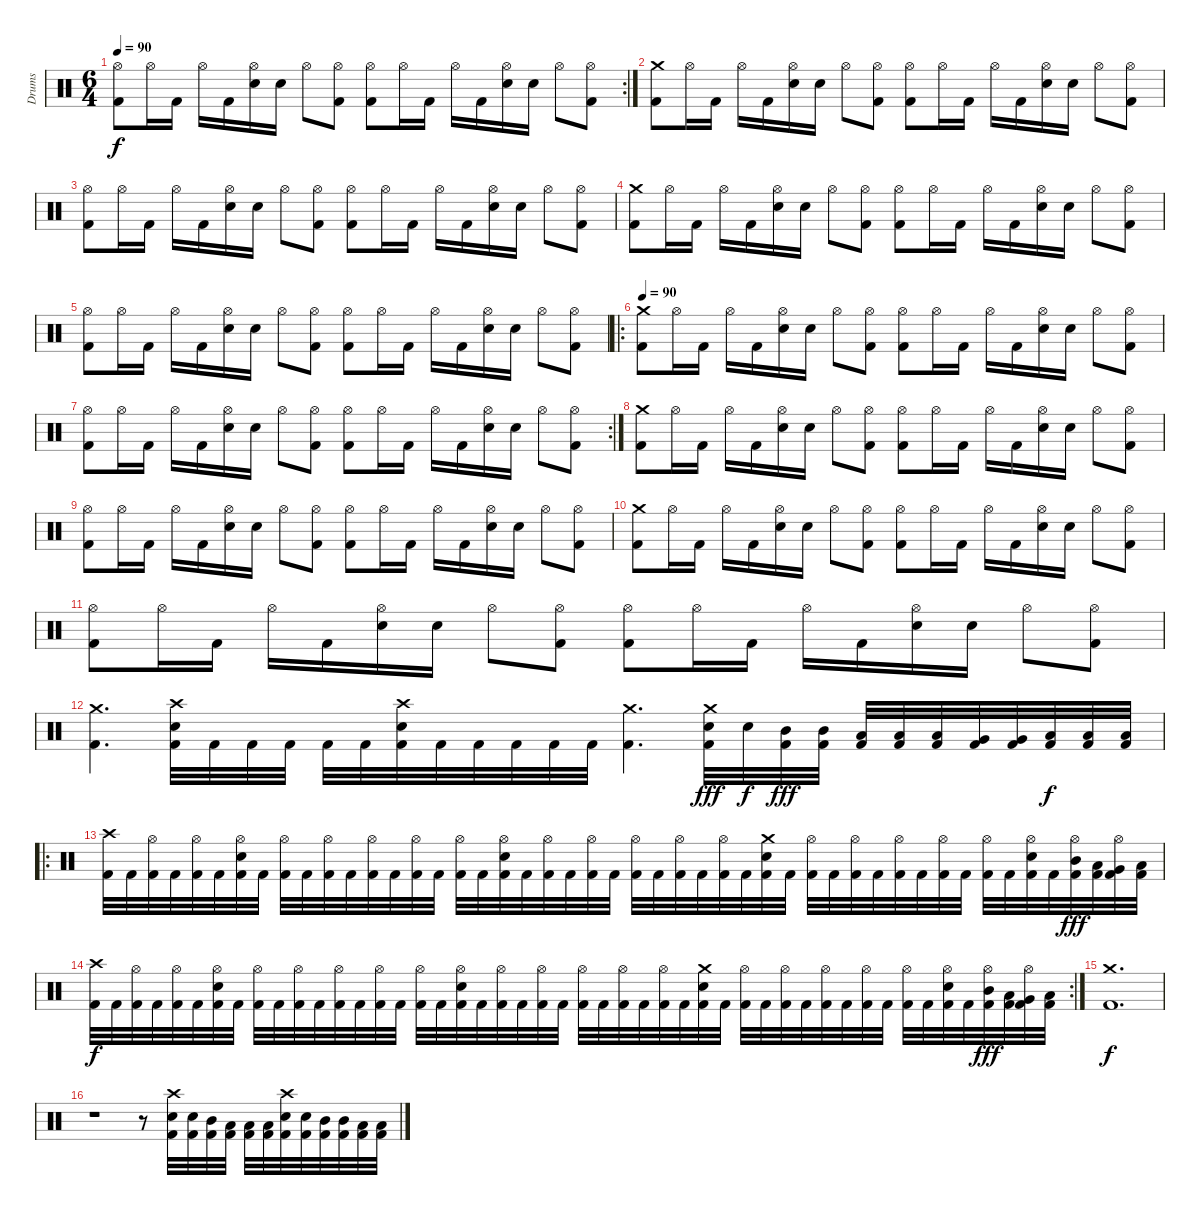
\track ("Drums" "Drums") {instrument percussion}
\staff {score}
\articulation defaults
\rc 2
\ts (6 4)
\tempo 90
\clef neutral
\ks c
("Hi-Hat (open)" "Kick (hit) 2").8{dy f} "Hi-Hat (open)".16 "Kick (hit) 2".16 "Hi-Hat (open)".16 "Kick (hit) 2".16 ("Hi-Hat (open)" "Electric Snare (hit)").16 "Electric Snare (hit)".16 "Hi-Hat (open)".8 ("Hi-Hat (open)" "Kick (hit) 2").8 ("Hi-Hat (open)" "Kick (hit) 2").8 "Hi-Hat (open)".16 "Kick (hit) 2".16 "Hi-Hat (open)".16 "Kick (hit) 2".16 ("Hi-Hat (open)" "Electric Snare (hit)").16 "Electric Snare (hit)".16 "Hi-Hat (open)".8 ("Hi-Hat (open)" "Kick (hit) 2").8 |
("Crash medium (hit)" "Kick (hit) 2").8 "Hi-Hat (open)".16 "Kick (hit) 2".16 "Hi-Hat (open)".16 "Kick (hit) 2".16 ("Hi-Hat (open)" "Electric Snare (hit)").16 "Electric Snare (hit)".16 "Hi-Hat (open)".8 ("Hi-Hat (open)" "Kick (hit) 2").8 ("Hi-Hat (open)" "Kick (hit) 2").8 "Hi-Hat (open)".16 "Kick (hit) 2".16 "Hi-Hat (open)".16 "Kick (hit) 2".16 ("Hi-Hat (open)" "Electric Snare (hit)").16 "Electric Snare (hit)".16 "Hi-Hat (open)".8 ("Hi-Hat (open)" "Kick (hit) 2").8 |
("Hi-Hat (open)" "Kick (hit) 2").8 "Hi-Hat (open)".16 "Kick (hit) 2".16 "Hi-Hat (open)".16 "Kick (hit) 2".16 ("Hi-Hat (open)" "Electric Snare (hit)").16 "Electric Snare (hit)".16 "Hi-Hat (open)".8 ("Hi-Hat (open)" "Kick (hit) 2").8 ("Hi-Hat (open)" "Kick (hit) 2").8 "Hi-Hat (open)".16 "Kick (hit) 2".16 "Hi-Hat (open)".16 "Kick (hit) 2".16 ("Hi-Hat (open)" "Electric Snare (hit)").16 "Electric Snare (hit)".16 "Hi-Hat (open)".8 ("Hi-Hat (open)" "Kick (hit) 2").8 |
("Crash medium (hit)" "Kick (hit) 2").8 "Hi-Hat (open)".16 "Kick (hit) 2".16 "Hi-Hat (open)".16 "Kick (hit) 2".16 ("Hi-Hat (open)" "Electric Snare (hit)").16 "Electric Snare (hit)".16 "Hi-Hat (open)".8 ("Hi-Hat (open)" "Kick (hit) 2").8 ("Hi-Hat (open)" "Kick (hit) 2").8 "Hi-Hat (open)".16 "Kick (hit) 2".16 "Hi-Hat (open)".16 "Kick (hit) 2".16 ("Hi-Hat (open)" "Electric Snare (hit)").16 "Electric Snare (hit)".16 "Hi-Hat (open)".8 ("Hi-Hat (open)" "Kick (hit) 2").8 |
("Hi-Hat (open)" "Kick (hit) 2").8 "Hi-Hat (open)".16 "Kick (hit) 2".16 "Hi-Hat (open)".16 "Kick (hit) 2".16 ("Hi-Hat (open)" "Electric Snare (hit)").16 "Electric Snare (hit)".16 "Hi-Hat (open)".8 ("Hi-Hat (open)" "Kick (hit) 2").8 ("Hi-Hat (open)" "Kick (hit) 2").8 "Hi-Hat (open)".16 "Kick (hit) 2".16 "Hi-Hat (open)".16 "Kick (hit) 2".16 ("Hi-Hat (open)" "Electric Snare (hit)").16 "Electric Snare (hit)".16 "Hi-Hat (open)".8 ("Hi-Hat (open)" "Kick (hit) 2").8 |
\ro
\tempo 90
("Crash medium (hit)" "Kick (hit) 2").8 "Hi-Hat (open)".16 "Kick (hit) 2".16 "Hi-Hat (open)".16 "Kick (hit) 2".16 ("Hi-Hat (open)" "Electric Snare (hit)").16 "Electric Snare (hit)".16 "Hi-Hat (open)".8 ("Hi-Hat (open)" "Kick (hit) 2").8 ("Hi-Hat (open)" "Kick (hit) 2").8 "Hi-Hat (open)".16 "Kick (hit) 2".16 "Hi-Hat (open)".16 "Kick (hit) 2".16 ("Hi-Hat (open)" "Electric Snare (hit)").16 "Electric Snare (hit)".16 "Hi-Hat (open)".8 ("Hi-Hat (open)" "Kick (hit) 2").8 |
\rc 2
("Hi-Hat (open)" "Kick (hit) 2").8 "Hi-Hat (open)".16 "Kick (hit) 2".16 "Hi-Hat (open)".16 "Kick (hit) 2".16 ("Hi-Hat (open)" "Electric Snare (hit)").16 "Electric Snare (hit)".16 "Hi-Hat (open)".8 ("Hi-Hat (open)" "Kick (hit) 2").8 ("Hi-Hat (open)" "Kick (hit) 2").8 "Hi-Hat (open)".16 "Kick (hit) 2".16 "Hi-Hat (open)".16 "Kick (hit) 2".16 ("Hi-Hat (open)" "Electric Snare (hit)").16 "Electric Snare (hit)".16 "Hi-Hat (open)".8 ("Hi-Hat (open)" "Kick (hit) 2").8 |
("Crash medium (hit)" "Kick (hit) 2").8 "Hi-Hat (open)".16 "Kick (hit) 2".16 "Hi-Hat (open)".16 "Kick (hit) 2".16 ("Hi-Hat (open)" "Electric Snare (hit)").16 "Electric Snare (hit)".16 "Hi-Hat (open)".8 ("Hi-Hat (open)" "Kick (hit) 2").8 ("Hi-Hat (open)" "Kick (hit) 2").8 "Hi-Hat (open)".16 "Kick (hit) 2".16 "Hi-Hat (open)".16 "Kick (hit) 2".16 ("Hi-Hat (open)" "Electric Snare (hit)").16 "Electric Snare (hit)".16 "Hi-Hat (open)".8 ("Hi-Hat (open)" "Kick (hit) 2").8 |
("Hi-Hat (open)" "Kick (hit) 2").8 "Hi-Hat (open)".16 "Kick (hit) 2".16 "Hi-Hat (open)".16 "Kick (hit) 2".16 ("Hi-Hat (open)" "Electric Snare (hit)").16 "Electric Snare (hit)".16 "Hi-Hat (open)".8 ("Hi-Hat (open)" "Kick (hit) 2").8 ("Hi-Hat (open)" "Kick (hit) 2").8 "Hi-Hat (open)".16 "Kick (hit) 2".16 "Hi-Hat (open)".16 "Kick (hit) 2".16 ("Hi-Hat (open)" "Electric Snare (hit)").16 "Electric Snare (hit)".16 "Hi-Hat (open)".8 ("Hi-Hat (open)" "Kick (hit) 2").8 |
("Crash medium (hit)" "Kick (hit) 2").8 "Hi-Hat (open)".16 "Kick (hit) 2".16 "Hi-Hat (open)".16 "Kick (hit) 2".16 ("Hi-Hat (open)" "Electric Snare (hit)").16 "Electric Snare (hit)".16 "Hi-Hat (open)".8 ("Hi-Hat (open)" "Kick (hit) 2").8 ("Hi-Hat (open)" "Kick (hit) 2").8 "Hi-Hat (open)".16 "Kick (hit) 2".16 "Hi-Hat (open)".16 "Kick (hit) 2".16 ("Hi-Hat (open)" "Electric Snare (hit)").16 "Electric Snare (hit)".16 "Hi-Hat (open)".8 ("Hi-Hat (open)" "Kick (hit) 2").8 |
("Hi-Hat (open)" "Kick (hit) 2").8 "Hi-Hat (open)".16 "Kick (hit) 2".16 "Hi-Hat (open)".16 "Kick (hit) 2".16 ("Hi-Hat (open)" "Electric Snare (hit)").16 "Electric Snare (hit)".16 "Hi-Hat (open)".8 ("Hi-Hat (open)" "Kick (hit) 2").8 ("Hi-Hat (open)" "Kick (hit) 2").8 "Hi-Hat (open)".16 "Kick (hit) 2".16 "Hi-Hat (open)".16 "Kick (hit) 2".16 ("Hi-Hat (open)" "Electric Snare (hit)").16 "Electric Snare (hit)".16 "Hi-Hat (open)".8 ("Hi-Hat (open)" "Kick (hit) 2").8 |
("Crash medium (hit)" "Kick (hit) 2").4{d} ("Crash high (hit)" "Electric Snare (hit)" "Kick (hit) 2").32 "Kick (hit) 2".32 "Kick (hit) 2".32 "Kick (hit) 2".32 "Kick (hit) 2".32 "Kick (hit) 2".32 ("Crash high (hit)" "Electric Snare (hit)" "Kick (hit) 2").32 "Kick (hit) 2".32 "Kick (hit) 2".32 "Kick (hit) 2".32 "Kick (hit) 2".32 "Kick (hit) 2".32 ("Crash medium (hit)" "Kick (hit) 2").4{d} ("Crash medium (hit)" "Electric Snare (hit)" "Kick (hit) 2").32{dy fff} "Electric Snare (hit)".32{dy f} ("Mid Tom (hit)" "Kick (hit) 2").32{dy fff} ("Mid Tom (hit)" "Kick (hit) 2").32 ("Low Tom (hit)" "Kick (hit) 2").32 ("Low Tom (hit)" "Kick (hit) 2").32 ("Low Tom (hit)" "Kick (hit) 2").32 ("Very Low Tom (hit)" "Kick (hit) 2").32 ("Very Low Tom (hit)" "Kick (hit) 2").32 ("Low Floor Tom (hit)" "Kick (hit) 2").32{dy f} ("Low Floor Tom (hit)" "Kick (hit) 2").32 ("Low Floor Tom (hit)" "Kick (hit) 2").32 |
\ro
("Crash high (hit)" "Kick (hit) 2").32 "Kick (hit) 2".32 ("Hi-Hat (open)" "Kick (hit) 2").32 "Kick (hit) 2".32 ("Hi-Hat (open)" "Kick (hit) 2").32 "Kick (hit) 2".32 ("Hi-Hat (open)" "Electric Snare (hit)" "Kick (hit) 2").32 "Kick (hit) 2".32 ("Hi-Hat (open)" "Kick (hit) 2").32 "Kick (hit) 2".32 ("Hi-Hat (open)" "Kick (hit) 2").32 "Kick (hit) 2".32 ("Hi-Hat (open)" "Kick (hit) 2").32 "Kick (hit) 2".32 ("Hi-Hat (open)" "Kick (hit) 2").32 "Kick (hit) 2".32 ("Hi-Hat (open)" "Kick (hit) 2").32 "Kick (hit) 2".32 ("Hi-Hat (open)" "Electric Snare (hit)" "Kick (hit) 2").32 "Kick (hit) 2".32 ("Hi-Hat (open)" "Kick (hit) 2").32 "Kick (hit) 2".32 ("Hi-Hat (open)" "Kick (hit) 2").32 "Kick (hit) 2".32 ("Hi-Hat (open)" "Kick (hit) 2").32 "Kick (hit) 2".32 ("Hi-Hat (open)" "Kick (hit) 2").32 "Kick (hit) 2".32 ("Hi-Hat (open)" "Kick (hit) 2").32 "Kick (hit) 2".32 ("Crash medium (hit)" "Electric Snare (hit)" "Kick (hit) 2").32 "Kick (hit) 2".32 ("Hi-Hat (open)" "Kick (hit) 2").32 "Kick (hit) 2".32 ("Hi-Hat (open)" "Kick (hit) 2").32 "Kick (hit) 2".32 ("Hi-Hat (open)" "Kick (hit) 2").32 "Kick (hit) 2".32 ("Hi-Hat (open)" "Kick (hit) 2").32 "Kick (hit) 2".32 ("Hi-Hat (open)" "Kick (hit) 2").32 "Kick (hit) 2".32 ("Hi-Hat (open)" "Electric Snare (hit)" "Kick (hit) 2").32 "Kick (hit) 2".32 ("Hi-Hat (open)" "Mid Tom (hit)" "Kick (hit) 2").32{dy fff} ("Low Tom (hit)" "Kick (hit) 2").32 ("Hi-Hat (open)" "Very Low Tom (hit)" "Kick (hit) 2").32 ("Low Floor Tom (hit)" "Kick (hit) 2").32 |
\rc 2
("Crash high (hit)" "Kick (hit) 2").32{dy f} "Kick (hit) 2".32 ("Hi-Hat (open)" "Kick (hit) 2").32 "Kick (hit) 2".32 ("Hi-Hat (open)" "Kick (hit) 2").32 "Kick (hit) 2".32 ("Hi-Hat (open)" "Electric Snare (hit)" "Kick (hit) 2").32 "Kick (hit) 2".32 ("Hi-Hat (open)" "Kick (hit) 2").32 "Kick (hit) 2".32 ("Hi-Hat (open)" "Kick (hit) 2").32 "Kick (hit) 2".32 ("Hi-Hat (open)" "Kick (hit) 2").32 "Kick (hit) 2".32 ("Hi-Hat (open)" "Kick (hit) 2").32 "Kick (hit) 2".32 ("Hi-Hat (open)" "Kick (hit) 2").32 "Kick (hit) 2".32 ("Hi-Hat (open)" "Electric Snare (hit)" "Kick (hit) 2").32 "Kick (hit) 2".32 ("Hi-Hat (open)" "Kick (hit) 2").32 "Kick (hit) 2".32 ("Hi-Hat (open)" "Kick (hit) 2").32 "Kick (hit) 2".32 ("Hi-Hat (open)" "Kick (hit) 2").32 "Kick (hit) 2".32 ("Hi-Hat (open)" "Kick (hit) 2").32 "Kick (hit) 2".32 ("Hi-Hat (open)" "Kick (hit) 2").32 "Kick (hit) 2".32 ("Crash medium (hit)" "Electric Snare (hit)" "Kick (hit) 2").32 "Kick (hit) 2".32 ("Hi-Hat (open)" "Kick (hit) 2").32 "Kick (hit) 2".32 ("Hi-Hat (open)" "Kick (hit) 2").32 "Kick (hit) 2".32 ("Hi-Hat (open)" "Kick (hit) 2").32 "Kick (hit) 2".32 ("Hi-Hat (open)" "Kick (hit) 2").32 "Kick (hit) 2".32 ("Hi-Hat (open)" "Kick (hit) 2").32 "Kick (hit) 2".32 ("Hi-Hat (open)" "Electric Snare (hit)" "Kick (hit) 2").32 "Kick (hit) 2".32 ("Hi-Hat (open)" "Mid Tom (hit)" "Kick (hit) 2").32{dy fff} ("Low Tom (hit)" "Kick (hit) 2").32 ("Hi-Hat (open)" "Very Low Tom (hit)" "Kick (hit) 2").32 ("Low Floor Tom (hit)" "Kick (hit) 2").32 |
("Crash medium (hit)" "Kick (hit) 2").1{d dy f} |
r.1 r.8 ("Crash high (hit)" "Electric Snare (hit)" "Kick (hit) 2").32 ("Electric Snare (hit)" "Kick (hit) 2").32 ("Mid Tom (hit)" "Kick (hit) 2").32 ("Low Tom (hit)" "Kick (hit) 2").32 ("Low Tom (hit)" "Kick (hit) 2").32 ("Low Tom (hit)" "Kick (hit) 2").32 ("Crash high (hit)" "Electric Snare (hit)" "Kick (hit) 2").32 ("Electric Snare (hit)" "Kick (hit) 2").32 ("Mid Tom (hit)" "Kick (hit) 2").32 ("Mid Tom (hit)" "Kick (hit) 2").32 ("Low Tom (hit)" "Kick (hit) 2").32 ("Low Tom (hit)" "Kick (hit) 2").32
